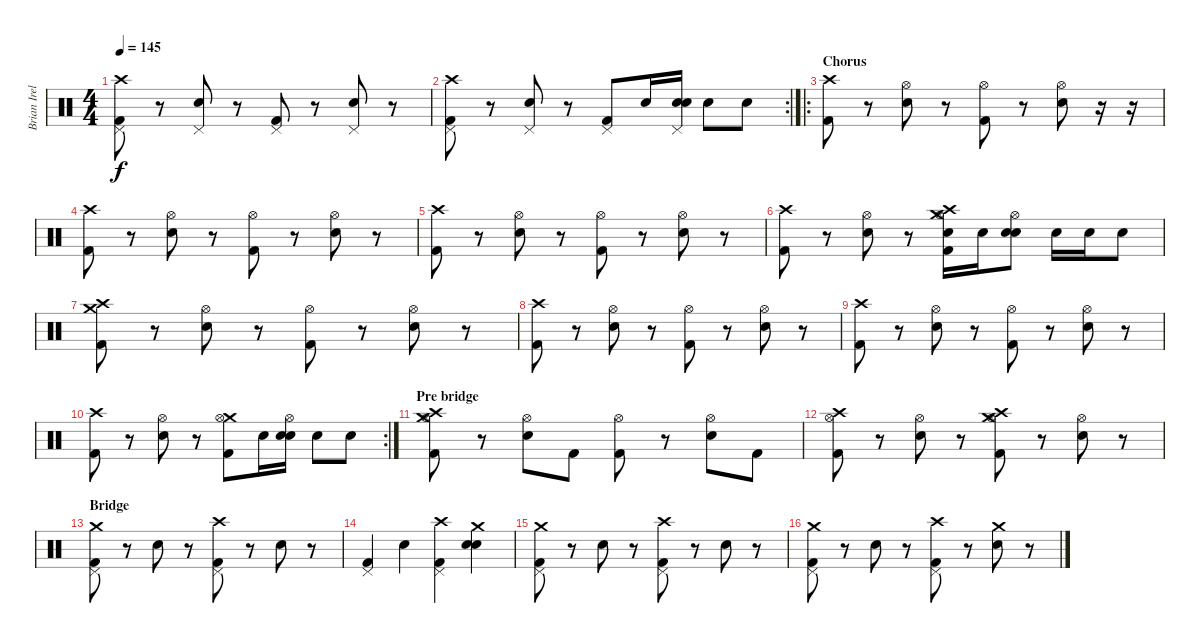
\track ("Brian Ireland" "Brian Irel") {instrument percussion}
\staff {score}
\articulation defaults
\ts (4 4)
\tempo 145
\clef neutral
\ks c
("Crash high (hit)" "Pedal Hi-Hat (hit)" "Kick (hit) 2").8{dy f} r.8 ("Pedal Hi-Hat (hit)" "Electric Snare (hit)").8 r.8 ("Pedal Hi-Hat (hit)" "Kick (hit) 2").8 r.8 ("Pedal Hi-Hat (hit)" "Electric Snare (hit)").8 r.8 |
\rc 2
("Crash high (hit)" "Pedal Hi-Hat (hit)" "Kick (hit) 2").8 r.8 ("Pedal Hi-Hat (hit)" "Electric Snare (hit)").8 r.8 ("Pedal Hi-Hat (hit)" "Kick (hit) 2").8 "Electric Snare (hit)".16 ("Electric Snare (hit)" "Pedal Hi-Hat (hit)" "Electric Snare (hit)").16 "Electric Snare (hit)".8 "Electric Snare (hit)".8 |
\ro
\section ("" "Chorus")
("Crash high (hit)" "Kick (hit) 2").8 r.8 ("Hi-Hat (open)" "Electric Snare (hit)").8 r.8 ("Hi-Hat (open)" "Kick (hit) 2").8 r.8 ("Hi-Hat (open)" "Electric Snare (hit)").8 r.16 r.16 |
("Crash high (hit)" "Kick (hit) 2").8 r.8 ("Hi-Hat (open)" "Electric Snare (hit)").8 r.8 ("Hi-Hat (open)" "Kick (hit) 2").8 r.8 ("Hi-Hat (open)" "Electric Snare (hit)").8 r.8 |
("Crash high (hit)" "Kick (hit) 2").8 r.8 ("Hi-Hat (open)" "Electric Snare (hit)").8 r.8 ("Hi-Hat (open)" "Kick (hit) 2").8 r.8 ("Hi-Hat (open)" "Electric Snare (hit)").8 r.8 |
("Crash high (hit)" "Kick (hit) 2").8 r.8 ("Hi-Hat (open)" "Electric Snare (hit)").8 r.8 ("Crash medium (hit)" "Crash high (hit)" "Electric Snare (hit)" "Hi-Hat (open)" "Kick (hit) 2").16 "Electric Snare (hit)".16 ("Electric Snare (hit)" "Hi-Hat (open)" "Electric Snare (hit)").8 "Electric Snare (hit)".16 "Electric Snare (hit)".16 "Electric Snare (hit)".8 |
("Crash medium (hit)" "Crash high (hit)" "Kick (hit) 2").8 r.8 ("Hi-Hat (open)" "Electric Snare (hit)").8 r.8 ("Hi-Hat (open)" "Kick (hit) 2").8 r.8 ("Hi-Hat (open)" "Electric Snare (hit)").8 r.8 |
("Crash high (hit)" "Kick (hit) 2").8 r.8 ("Hi-Hat (open)" "Electric Snare (hit)").8 r.8 ("Hi-Hat (open)" "Kick (hit) 2").8 r.8 ("Hi-Hat (open)" "Electric Snare (hit)").8 r.8 |
("Crash high (hit)" "Kick (hit) 2").8 r.8 ("Hi-Hat (open)" "Electric Snare (hit)").8 r.8 ("Hi-Hat (open)" "Kick (hit) 2").8 r.8 ("Hi-Hat (open)" "Electric Snare (hit)").8 r.8 |
\rc 2
("Crash high (hit)" "Kick (hit) 2").8 r.8 ("Hi-Hat (open)" "Electric Snare (hit)").8 r.8 ("Crash medium (hit)" "Hi-Hat (open)" "Kick (hit) 2").8 "Electric Snare (hit)".16 ("Electric Snare (hit)" "Hi-Hat (open)" "Electric Snare (hit)").16 "Electric Snare (hit)".8 "Electric Snare (hit)".8 |
\section ("" "Pre bridge")
("Crash high (hit)" "Crash medium (hit)" "Hi-Hat (open)" "Kick (hit) 2").8 r.8 ("Hi-Hat (open)" "Electric Snare (hit)").8 "Kick (hit) 2".8 ("Hi-Hat (open)" "Kick (hit) 2").8 r.8 ("Hi-Hat (open)" "Electric Snare (hit)").8 "Kick (hit) 2".8 |
("Crash high (hit)" "Hi-Hat (open)" "Kick (hit) 2").8 r.8 ("Electric Snare (hit)" "Hi-Hat (open)").8 r.8 ("Crash high (hit)" "Crash medium (hit)" "Kick (hit) 2" "Hi-Hat (open)").8 r.8 ("Electric Snare (hit)" "Hi-Hat (open)").8 r.8 |
\section ("" "Bridge")
("Crash medium (hit)" "Pedal Hi-Hat (hit)" "Kick (hit) 2").8 r.8 "Electric Snare (hit)".8 r.8 ("Crash high (hit)" "Pedal Hi-Hat (hit)" "Kick (hit) 2").8 r.8 "Electric Snare (hit)".8 r.8 |
("Pedal Hi-Hat (hit)" "Kick (hit) 2").4 "Electric Snare (hit)".4 ("Crash high (hit)" "Pedal Hi-Hat (hit)" "Kick (hit) 2").4 ("Crash medium (hit)" "Snare (hit)" "Electric Snare (hit)").4 |
("Crash medium (hit)" "Pedal Hi-Hat (hit)" "Kick (hit) 2").8 r.8 "Electric Snare (hit)".8 r.8 ("Crash high (hit)" "Pedal Hi-Hat (hit)" "Kick (hit) 2").8 r.8 "Electric Snare (hit)".8 r.8 |
("Crash medium (hit)" "Pedal Hi-Hat (hit)" "Kick (hit) 2").8 r.8 "Electric Snare (hit)".8 r.8 ("Crash high (hit)" "Pedal Hi-Hat (hit)" "Kick (hit) 2").8 r.8 ("Crash medium (hit)" "Electric Snare (hit)").8 r.8
